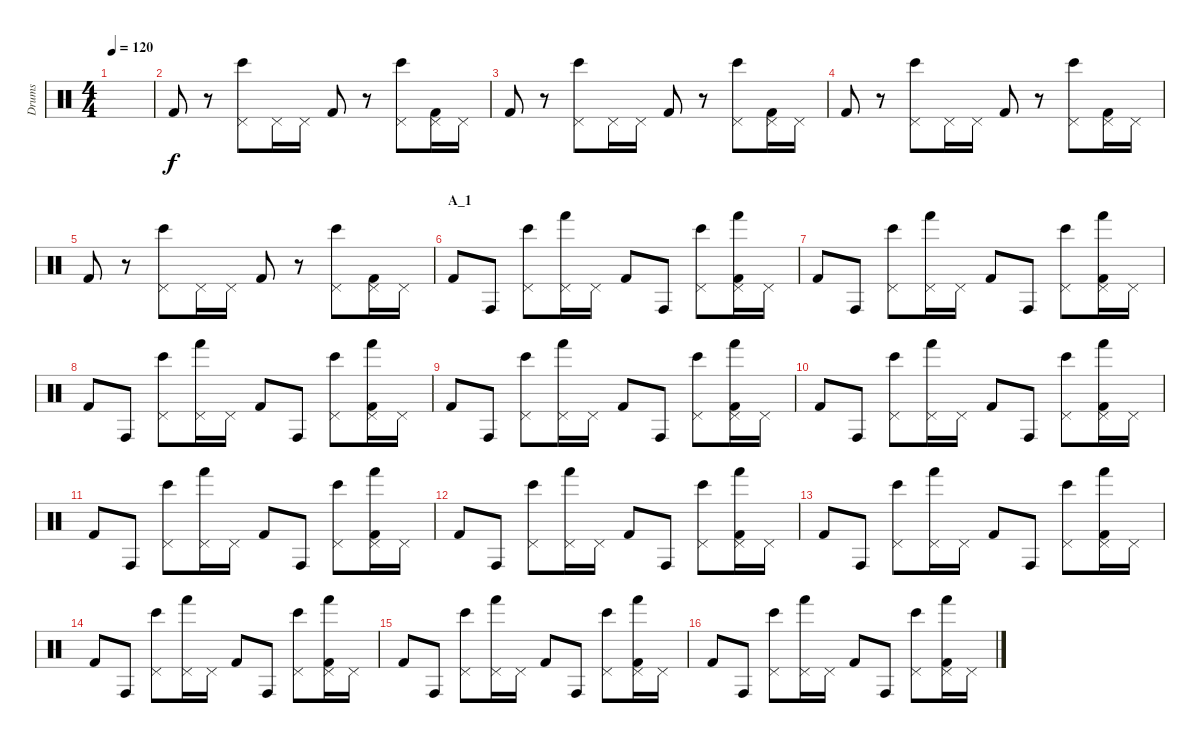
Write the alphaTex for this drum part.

\track ("Drums" "Drums") {instrument percussion}
\staff {score}
\articulation defaults
\ts (4 4)
\tempo 120
\clef neutral
\ks c
|
"Kick (hit) 2".8 r.8 ("Pedal Hi-Hat (hit)" "Bongo High (hit)").8 "Pedal Hi-Hat (hit)".16 "Pedal Hi-Hat (hit)".16 "Kick (hit) 2".8 r.8 ("Pedal Hi-Hat (hit)" "Bongo High (hit)").8 ("Pedal Hi-Hat (hit)" "Kick (hit) 2").16 "Pedal Hi-Hat (hit)".16 |
"Kick (hit) 2".8 r.8 ("Pedal Hi-Hat (hit)" "Bongo High (hit)").8 "Pedal Hi-Hat (hit)".16 "Pedal Hi-Hat (hit)".16 "Kick (hit) 2".8 r.8 ("Pedal Hi-Hat (hit)" "Bongo High (hit)").8 ("Pedal Hi-Hat (hit)" "Kick (hit) 2").16 "Pedal Hi-Hat (hit)".16 |
"Kick (hit) 2".8 r.8 ("Pedal Hi-Hat (hit)" "Bongo High (hit)").8 "Pedal Hi-Hat (hit)".16 "Pedal Hi-Hat (hit)".16 "Kick (hit) 2".8 r.8 ("Pedal Hi-Hat (hit)" "Bongo High (hit)").8 ("Pedal Hi-Hat (hit)" "Kick (hit) 2").16 "Pedal Hi-Hat (hit)".16 |
"Kick (hit) 2".8 r.8 ("Pedal Hi-Hat (hit)" "Bongo High (hit)").8 "Pedal Hi-Hat (hit)".16 "Pedal Hi-Hat (hit)".16 "Kick (hit) 2".8 r.8 ("Pedal Hi-Hat (hit)" "Bongo High (hit)").8 ("Pedal Hi-Hat (hit)" "Kick (hit) 2").16 "Pedal Hi-Hat (hit)".16 |
\section ("" "A_1")
"Kick (hit) 2".8 "Conga high (hit)".8 ("Pedal Hi-Hat (hit)" "Bongo High (hit)").8 ("Pedal Hi-Hat (hit)" "Hand (hit)").16 "Pedal Hi-Hat (hit)".16 "Kick (hit) 2".8 "Conga high (hit)".8 ("Pedal Hi-Hat (hit)" "Bongo High (hit)").8 ("Pedal Hi-Hat (hit)" "Hand (hit)" "Kick (hit) 2").16 "Pedal Hi-Hat (hit)".16 |
"Kick (hit) 2".8 "Conga high (hit)".8 ("Pedal Hi-Hat (hit)" "Bongo High (hit)").8 ("Pedal Hi-Hat (hit)" "Hand (hit)").16 "Pedal Hi-Hat (hit)".16 "Kick (hit) 2".8 "Conga high (hit)".8 ("Pedal Hi-Hat (hit)" "Bongo High (hit)").8 ("Pedal Hi-Hat (hit)" "Hand (hit)" "Kick (hit) 2").16 "Pedal Hi-Hat (hit)".16 |
"Kick (hit) 2".8 "Conga high (hit)".8 ("Pedal Hi-Hat (hit)" "Bongo High (hit)").8 ("Pedal Hi-Hat (hit)" "Hand (hit)").16 "Pedal Hi-Hat (hit)".16 "Kick (hit) 2".8 "Conga high (hit)".8 ("Pedal Hi-Hat (hit)" "Bongo High (hit)").8 ("Pedal Hi-Hat (hit)" "Hand (hit)" "Kick (hit) 2").16 "Pedal Hi-Hat (hit)".16 |
"Kick (hit) 2".8 "Conga high (hit)".8 ("Pedal Hi-Hat (hit)" "Bongo High (hit)").8 ("Pedal Hi-Hat (hit)" "Hand (hit)").16 "Pedal Hi-Hat (hit)".16 "Kick (hit) 2".8 "Conga high (hit)".8 ("Pedal Hi-Hat (hit)" "Bongo High (hit)").8 ("Pedal Hi-Hat (hit)" "Hand (hit)" "Kick (hit) 2").16 "Pedal Hi-Hat (hit)".16 |
"Kick (hit) 2".8 "Conga high (hit)".8 ("Pedal Hi-Hat (hit)" "Bongo High (hit)").8 ("Pedal Hi-Hat (hit)" "Hand (hit)").16 "Pedal Hi-Hat (hit)".16 "Kick (hit) 2".8 "Conga high (hit)".8 ("Pedal Hi-Hat (hit)" "Bongo High (hit)").8 ("Pedal Hi-Hat (hit)" "Hand (hit)" "Kick (hit) 2").16 "Pedal Hi-Hat (hit)".16 |
"Kick (hit) 2".8 "Conga high (hit)".8 ("Pedal Hi-Hat (hit)" "Bongo High (hit)").8 ("Pedal Hi-Hat (hit)" "Hand (hit)").16 "Pedal Hi-Hat (hit)".16 "Kick (hit) 2".8 "Conga high (hit)".8 ("Pedal Hi-Hat (hit)" "Bongo High (hit)").8 ("Pedal Hi-Hat (hit)" "Hand (hit)" "Kick (hit) 2").16 "Pedal Hi-Hat (hit)".16 |
"Kick (hit) 2".8 "Conga high (hit)".8 ("Pedal Hi-Hat (hit)" "Bongo High (hit)").8 ("Pedal Hi-Hat (hit)" "Hand (hit)").16 "Pedal Hi-Hat (hit)".16 "Kick (hit) 2".8 "Conga high (hit)".8 ("Pedal Hi-Hat (hit)" "Bongo High (hit)").8 ("Pedal Hi-Hat (hit)" "Hand (hit)" "Kick (hit) 2").16 "Pedal Hi-Hat (hit)".16 |
"Kick (hit) 2".8 "Conga high (hit)".8 ("Pedal Hi-Hat (hit)" "Bongo High (hit)").8 ("Pedal Hi-Hat (hit)" "Hand (hit)").16 "Pedal Hi-Hat (hit)".16 "Kick (hit) 2".8 "Conga high (hit)".8 ("Pedal Hi-Hat (hit)" "Bongo High (hit)").8 ("Pedal Hi-Hat (hit)" "Hand (hit)" "Kick (hit) 2").16 "Pedal Hi-Hat (hit)".16 |
"Kick (hit) 2".8 "Conga high (hit)".8 ("Pedal Hi-Hat (hit)" "Bongo High (hit)").8 ("Pedal Hi-Hat (hit)" "Hand (hit)").16 "Pedal Hi-Hat (hit)".16 "Kick (hit) 2".8 "Conga high (hit)".8 ("Pedal Hi-Hat (hit)" "Bongo High (hit)").8 ("Pedal Hi-Hat (hit)" "Hand (hit)" "Kick (hit) 2").16 "Pedal Hi-Hat (hit)".16 |
"Kick (hit) 2".8 "Conga high (hit)".8 ("Pedal Hi-Hat (hit)" "Bongo High (hit)").8 ("Pedal Hi-Hat (hit)" "Hand (hit)").16 "Pedal Hi-Hat (hit)".16 "Kick (hit) 2".8 "Conga high (hit)".8 ("Pedal Hi-Hat (hit)" "Bongo High (hit)").8 ("Pedal Hi-Hat (hit)" "Hand (hit)" "Kick (hit) 2").16 "Pedal Hi-Hat (hit)".16 |
"Kick (hit) 2".8 "Conga high (hit)".8 ("Pedal Hi-Hat (hit)" "Bongo High (hit)").8 ("Pedal Hi-Hat (hit)" "Hand (hit)").16 "Pedal Hi-Hat (hit)".16 "Kick (hit) 2".8 "Conga high (hit)".8 ("Pedal Hi-Hat (hit)" "Bongo High (hit)").8 ("Pedal Hi-Hat (hit)" "Hand (hit)" "Kick (hit) 2").16 "Pedal Hi-Hat (hit)".16
